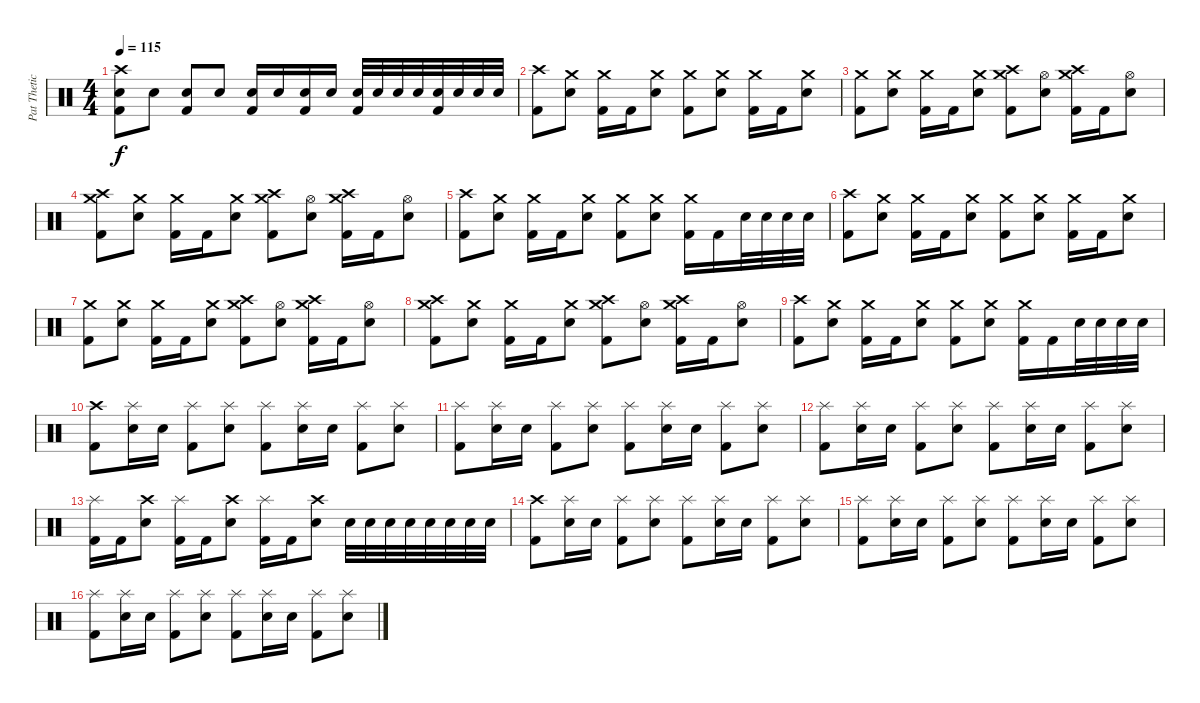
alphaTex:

\track ("Pat Thetic" "Pat Thetic") {instrument percussion}
\staff {score}
\articulation defaults
\ts (4 4)
\tempo 115
\clef neutral
\ks c
("Crash high (hit)" "Electric Snare (hit)" "Kick (hit) 2").8{dy f} "Electric Snare (hit)".8 ("Electric Snare (hit)" "Kick (hit) 2").8 "Electric Snare (hit)".8 ("Electric Snare (hit)" "Kick (hit) 2").16 "Electric Snare (hit)".16 ("Electric Snare (hit)" "Kick (hit) 2").16 "Electric Snare (hit)".16 ("Electric Snare (hit)" "Kick (hit) 2").32 "Electric Snare (hit)".32 "Electric Snare (hit)".32 "Electric Snare (hit)".32 ("Electric Snare (hit)" "Kick (hit) 2").32 "Electric Snare (hit)".32 "Electric Snare (hit)".32 "Electric Snare (hit)".32 |
("Crash high (hit)" "Kick (hit) 2").8 ("Crash medium (hit)" "Electric Snare (hit)").8 ("Crash medium (hit)" "Kick (hit) 2").16 "Kick (hit) 2".16 ("Crash medium (hit)" "Electric Snare (hit)").8 ("Crash medium (hit)" "Kick (hit) 2").8 ("Crash medium (hit)" "Electric Snare (hit)").8 ("Crash medium (hit)" "Kick (hit) 2").16 "Kick (hit) 2".16 ("Crash medium (hit)" "Electric Snare (hit)").8 |
("Crash medium (hit)" "Kick (hit) 2").8 ("Crash medium (hit)" "Electric Snare (hit)").8 ("Crash medium (hit)" "Kick (hit) 2").16 "Kick (hit) 2".16 ("Crash medium (hit)" "Electric Snare (hit)").8 ("Crash high (hit)" "Crash medium (hit)" "Kick (hit) 2").8 ("Hi-Hat (open)" "Electric Snare (hit)").8 ("Crash high (hit)" "Crash medium (hit)" "Kick (hit) 2").16 "Kick (hit) 2".16 ("Hi-Hat (open)" "Electric Snare (hit)").8 |
("Crash high (hit)" "Crash medium (hit)" "Kick (hit) 2").8 ("Crash medium (hit)" "Electric Snare (hit)").8 ("Crash medium (hit)" "Kick (hit) 2").16 "Kick (hit) 2".16 ("Crash medium (hit)" "Electric Snare (hit)").8 ("Crash high (hit)" "Crash medium (hit)" "Kick (hit) 2").8 ("Hi-Hat (open)" "Electric Snare (hit)").8 ("Crash high (hit)" "Crash medium (hit)" "Kick (hit) 2").16 "Kick (hit) 2".16 ("Hi-Hat (open)" "Electric Snare (hit)").8 |
("Crash high (hit)" "Kick (hit) 2").8 ("Crash medium (hit)" "Electric Snare (hit)").8 ("Crash medium (hit)" "Kick (hit) 2").16 "Kick (hit) 2".16 ("Crash medium (hit)" "Electric Snare (hit)").8 ("Crash medium (hit)" "Kick (hit) 2").8 ("Crash medium (hit)" "Electric Snare (hit)").8 ("Crash medium (hit)" "Kick (hit) 2").16 "Kick (hit) 2".16 "Electric Snare (hit)".32 "Electric Snare (hit)".32 "Electric Snare (hit)".32 "Electric Snare (hit)".32 |
("Crash high (hit)" "Kick (hit) 2").8 ("Crash medium (hit)" "Electric Snare (hit)").8 ("Crash medium (hit)" "Kick (hit) 2").16 "Kick (hit) 2".16 ("Crash medium (hit)" "Electric Snare (hit)").8 ("Crash medium (hit)" "Kick (hit) 2").8 ("Crash medium (hit)" "Electric Snare (hit)").8 ("Crash medium (hit)" "Kick (hit) 2").16 "Kick (hit) 2".16 ("Crash medium (hit)" "Electric Snare (hit)").8 |
("Crash medium (hit)" "Kick (hit) 2").8 ("Crash medium (hit)" "Electric Snare (hit)").8 ("Crash medium (hit)" "Kick (hit) 2").16 "Kick (hit) 2".16 ("Crash medium (hit)" "Electric Snare (hit)").8 ("Crash high (hit)" "Crash medium (hit)" "Kick (hit) 2").8 ("Hi-Hat (open)" "Electric Snare (hit)").8 ("Crash high (hit)" "Crash medium (hit)" "Kick (hit) 2").16 "Kick (hit) 2".16 ("Hi-Hat (open)" "Electric Snare (hit)").8 |
("Crash high (hit)" "Crash medium (hit)" "Kick (hit) 2").8 ("Crash medium (hit)" "Electric Snare (hit)").8 ("Crash medium (hit)" "Kick (hit) 2").16 "Kick (hit) 2".16 ("Crash medium (hit)" "Electric Snare (hit)").8 ("Crash high (hit)" "Crash medium (hit)" "Kick (hit) 2").8 ("Hi-Hat (open)" "Electric Snare (hit)").8 ("Crash high (hit)" "Crash medium (hit)" "Kick (hit) 2").16 "Kick (hit) 2".16 ("Hi-Hat (open)" "Electric Snare (hit)").8 |
("Crash high (hit)" "Kick (hit) 2").8 ("Crash medium (hit)" "Electric Snare (hit)").8 ("Crash medium (hit)" "Kick (hit) 2").16 "Kick (hit) 2".16 ("Crash medium (hit)" "Electric Snare (hit)").8 ("Crash medium (hit)" "Kick (hit) 2").8 ("Crash medium (hit)" "Electric Snare (hit)").8 ("Crash medium (hit)" "Kick (hit) 2").16 "Kick (hit) 2".16 "Electric Snare (hit)".32 "Electric Snare (hit)".32 "Electric Snare (hit)".32 "Electric Snare (hit)".32 |
("Crash high (hit)" "Kick (hit) 2").8 ("Splash (hit)" "Electric Snare (hit)").16 "Electric Snare (hit)".16 ("Splash (hit)" "Kick (hit) 2").8 ("Splash (hit)" "Electric Snare (hit)").8 ("Splash (hit)" "Kick (hit) 2").8 ("Splash (hit)" "Electric Snare (hit)").16 "Electric Snare (hit)".16 ("Splash (hit)" "Kick (hit) 2").8 ("Splash (hit)" "Electric Snare (hit)").8 |
("Splash (hit)" "Kick (hit) 2").8 ("Splash (hit)" "Electric Snare (hit)").16 "Electric Snare (hit)".16 ("Splash (hit)" "Kick (hit) 2").8 ("Splash (hit)" "Electric Snare (hit)").8 ("Splash (hit)" "Kick (hit) 2").8 ("Splash (hit)" "Electric Snare (hit)").16 "Electric Snare (hit)".16 ("Splash (hit)" "Kick (hit) 2").8 ("Splash (hit)" "Electric Snare (hit)").8 |
("Splash (hit)" "Kick (hit) 2").8 ("Splash (hit)" "Electric Snare (hit)").16 "Electric Snare (hit)".16 ("Splash (hit)" "Kick (hit) 2").8 ("Splash (hit)" "Electric Snare (hit)").8 ("Splash (hit)" "Kick (hit) 2").8 ("Splash (hit)" "Electric Snare (hit)").16 "Electric Snare (hit)".16 ("Splash (hit)" "Kick (hit) 2").8 ("Splash (hit)" "Electric Snare (hit)").8 |
("Splash (hit)" "Kick (hit) 2").16 "Kick (hit) 2".16 ("Crash high (hit)" "Electric Snare (hit)").8 ("Splash (hit)" "Kick (hit) 2").16 "Kick (hit) 2".16 ("Crash high (hit)" "Electric Snare (hit)").8 ("Splash (hit)" "Kick (hit) 2").16 "Kick (hit) 2".16 ("Crash high (hit)" "Electric Snare (hit)").8 "Electric Snare (hit)".32 "Electric Snare (hit)".32 "Electric Snare (hit)".32 "Electric Snare (hit)".32 "Electric Snare (hit)".32 "Electric Snare (hit)".32 "Electric Snare (hit)".32 "Electric Snare (hit)".32 |
("Crash high (hit)" "Kick (hit) 2").8 ("Splash (hit)" "Electric Snare (hit)").16 "Electric Snare (hit)".16 ("Splash (hit)" "Kick (hit) 2").8 ("Splash (hit)" "Electric Snare (hit)").8 ("Splash (hit)" "Kick (hit) 2").8 ("Splash (hit)" "Electric Snare (hit)").16 "Electric Snare (hit)".16 ("Splash (hit)" "Kick (hit) 2").8 ("Splash (hit)" "Electric Snare (hit)").8 |
("Splash (hit)" "Kick (hit) 2").8 ("Splash (hit)" "Electric Snare (hit)").16 "Electric Snare (hit)".16 ("Splash (hit)" "Kick (hit) 2").8 ("Splash (hit)" "Electric Snare (hit)").8 ("Splash (hit)" "Kick (hit) 2").8 ("Splash (hit)" "Electric Snare (hit)").16 "Electric Snare (hit)".16 ("Splash (hit)" "Kick (hit) 2").8 ("Splash (hit)" "Electric Snare (hit)").8 |
("Splash (hit)" "Kick (hit) 2").8 ("Splash (hit)" "Electric Snare (hit)").16 "Electric Snare (hit)".16 ("Splash (hit)" "Kick (hit) 2").8 ("Splash (hit)" "Electric Snare (hit)").8 ("Splash (hit)" "Kick (hit) 2").8 ("Splash (hit)" "Electric Snare (hit)").16 "Electric Snare (hit)".16 ("Splash (hit)" "Kick (hit) 2").8 ("Splash (hit)" "Electric Snare (hit)").8
